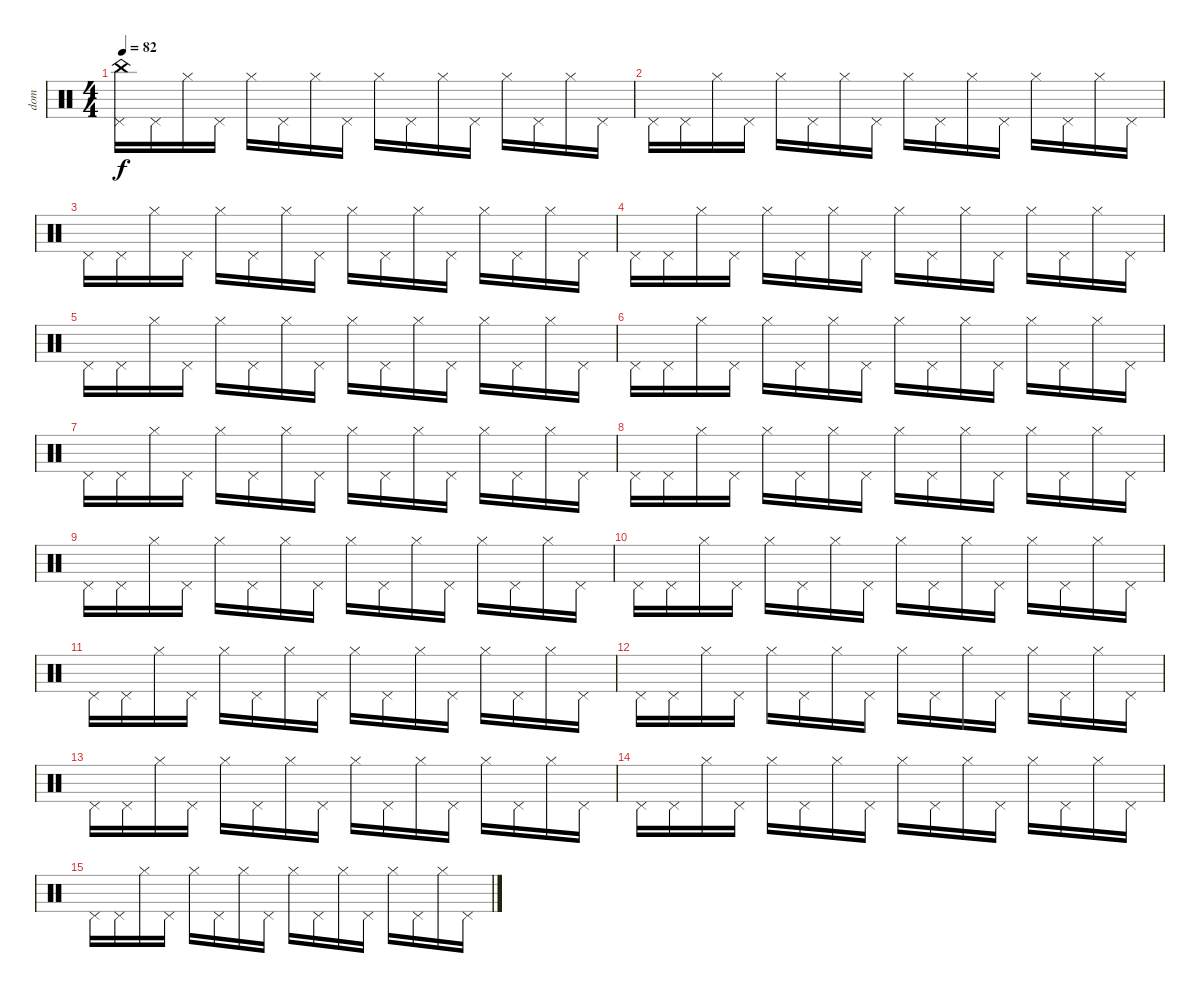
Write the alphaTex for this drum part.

\track ("dom" "dom") {instrument percussion}
\staff {score}
\articulation defaults
\ts (4 4)
\tempo 82
\clef neutral
\ks c
("China (hit)" "Pedal Hi-Hat (hit)").16{dy f} "Pedal Hi-Hat (hit)".16 "Hi-Hat (closed)".16 "Pedal Hi-Hat (hit)".16 "Hi-Hat (closed)".16 "Pedal Hi-Hat (hit)".16 "Hi-Hat (closed)".16 "Pedal Hi-Hat (hit)".16 "Hi-Hat (closed)".16 "Pedal Hi-Hat (hit)".16 "Hi-Hat (closed)".16 "Pedal Hi-Hat (hit)".16 "Hi-Hat (closed)".16 "Pedal Hi-Hat (hit)".16 "Hi-Hat (closed)".16 "Pedal Hi-Hat (hit)".16 |
"Pedal Hi-Hat (hit)".16 "Pedal Hi-Hat (hit)".16 "Hi-Hat (closed)".16 "Pedal Hi-Hat (hit)".16 "Hi-Hat (closed)".16 "Pedal Hi-Hat (hit)".16 "Hi-Hat (closed)".16 "Pedal Hi-Hat (hit)".16 "Hi-Hat (closed)".16 "Pedal Hi-Hat (hit)".16 "Hi-Hat (closed)".16 "Pedal Hi-Hat (hit)".16 "Hi-Hat (closed)".16 "Pedal Hi-Hat (hit)".16 "Hi-Hat (closed)".16 "Pedal Hi-Hat (hit)".16 |
"Pedal Hi-Hat (hit)".16 "Pedal Hi-Hat (hit)".16 "Hi-Hat (closed)".16 "Pedal Hi-Hat (hit)".16 "Hi-Hat (closed)".16 "Pedal Hi-Hat (hit)".16 "Hi-Hat (closed)".16 "Pedal Hi-Hat (hit)".16 "Hi-Hat (closed)".16 "Pedal Hi-Hat (hit)".16 "Hi-Hat (closed)".16 "Pedal Hi-Hat (hit)".16 "Hi-Hat (closed)".16 "Pedal Hi-Hat (hit)".16 "Hi-Hat (closed)".16 "Pedal Hi-Hat (hit)".16 |
"Pedal Hi-Hat (hit)".16 "Pedal Hi-Hat (hit)".16 "Hi-Hat (closed)".16 "Pedal Hi-Hat (hit)".16 "Hi-Hat (closed)".16 "Pedal Hi-Hat (hit)".16 "Hi-Hat (closed)".16 "Pedal Hi-Hat (hit)".16 "Hi-Hat (closed)".16 "Pedal Hi-Hat (hit)".16 "Hi-Hat (closed)".16 "Pedal Hi-Hat (hit)".16 "Hi-Hat (closed)".16 "Pedal Hi-Hat (hit)".16 "Hi-Hat (closed)".16 "Pedal Hi-Hat (hit)".16 |
"Pedal Hi-Hat (hit)".16 "Pedal Hi-Hat (hit)".16 "Hi-Hat (closed)".16 "Pedal Hi-Hat (hit)".16 "Hi-Hat (closed)".16 "Pedal Hi-Hat (hit)".16 "Hi-Hat (closed)".16 "Pedal Hi-Hat (hit)".16 "Hi-Hat (closed)".16 "Pedal Hi-Hat (hit)".16 "Hi-Hat (closed)".16 "Pedal Hi-Hat (hit)".16 "Hi-Hat (closed)".16 "Pedal Hi-Hat (hit)".16 "Hi-Hat (closed)".16 "Pedal Hi-Hat (hit)".16 |
"Pedal Hi-Hat (hit)".16 "Pedal Hi-Hat (hit)".16 "Hi-Hat (closed)".16 "Pedal Hi-Hat (hit)".16 "Hi-Hat (closed)".16 "Pedal Hi-Hat (hit)".16 "Hi-Hat (closed)".16 "Pedal Hi-Hat (hit)".16 "Hi-Hat (closed)".16 "Pedal Hi-Hat (hit)".16 "Hi-Hat (closed)".16 "Pedal Hi-Hat (hit)".16 "Hi-Hat (closed)".16 "Pedal Hi-Hat (hit)".16 "Hi-Hat (closed)".16 "Pedal Hi-Hat (hit)".16 |
"Pedal Hi-Hat (hit)".16 "Pedal Hi-Hat (hit)".16 "Hi-Hat (closed)".16 "Pedal Hi-Hat (hit)".16 "Hi-Hat (closed)".16 "Pedal Hi-Hat (hit)".16 "Hi-Hat (closed)".16 "Pedal Hi-Hat (hit)".16 "Hi-Hat (closed)".16 "Pedal Hi-Hat (hit)".16 "Hi-Hat (closed)".16 "Pedal Hi-Hat (hit)".16 "Hi-Hat (closed)".16 "Pedal Hi-Hat (hit)".16 "Hi-Hat (closed)".16 "Pedal Hi-Hat (hit)".16 |
"Pedal Hi-Hat (hit)".16 "Pedal Hi-Hat (hit)".16 "Hi-Hat (closed)".16 "Pedal Hi-Hat (hit)".16 "Hi-Hat (closed)".16 "Pedal Hi-Hat (hit)".16 "Hi-Hat (closed)".16 "Pedal Hi-Hat (hit)".16 "Hi-Hat (closed)".16 "Pedal Hi-Hat (hit)".16 "Hi-Hat (closed)".16 "Pedal Hi-Hat (hit)".16 "Hi-Hat (closed)".16 "Pedal Hi-Hat (hit)".16 "Hi-Hat (closed)".16 "Pedal Hi-Hat (hit)".16 |
"Pedal Hi-Hat (hit)".16 "Pedal Hi-Hat (hit)".16 "Hi-Hat (closed)".16 "Pedal Hi-Hat (hit)".16 "Hi-Hat (closed)".16 "Pedal Hi-Hat (hit)".16 "Hi-Hat (closed)".16 "Pedal Hi-Hat (hit)".16 "Hi-Hat (closed)".16 "Pedal Hi-Hat (hit)".16 "Hi-Hat (closed)".16 "Pedal Hi-Hat (hit)".16 "Hi-Hat (closed)".16 "Pedal Hi-Hat (hit)".16 "Hi-Hat (closed)".16 "Pedal Hi-Hat (hit)".16 |
"Pedal Hi-Hat (hit)".16 "Pedal Hi-Hat (hit)".16 "Hi-Hat (closed)".16 "Pedal Hi-Hat (hit)".16 "Hi-Hat (closed)".16 "Pedal Hi-Hat (hit)".16 "Hi-Hat (closed)".16 "Pedal Hi-Hat (hit)".16 "Hi-Hat (closed)".16 "Pedal Hi-Hat (hit)".16 "Hi-Hat (closed)".16 "Pedal Hi-Hat (hit)".16 "Hi-Hat (closed)".16 "Pedal Hi-Hat (hit)".16 "Hi-Hat (closed)".16 "Pedal Hi-Hat (hit)".16 |
"Pedal Hi-Hat (hit)".16 "Pedal Hi-Hat (hit)".16 "Hi-Hat (closed)".16 "Pedal Hi-Hat (hit)".16 "Hi-Hat (closed)".16 "Pedal Hi-Hat (hit)".16 "Hi-Hat (closed)".16 "Pedal Hi-Hat (hit)".16 "Hi-Hat (closed)".16 "Pedal Hi-Hat (hit)".16 "Hi-Hat (closed)".16 "Pedal Hi-Hat (hit)".16 "Hi-Hat (closed)".16 "Pedal Hi-Hat (hit)".16 "Hi-Hat (closed)".16 "Pedal Hi-Hat (hit)".16 |
"Pedal Hi-Hat (hit)".16 "Pedal Hi-Hat (hit)".16 "Hi-Hat (closed)".16 "Pedal Hi-Hat (hit)".16 "Hi-Hat (closed)".16 "Pedal Hi-Hat (hit)".16 "Hi-Hat (closed)".16 "Pedal Hi-Hat (hit)".16 "Hi-Hat (closed)".16 "Pedal Hi-Hat (hit)".16 "Hi-Hat (closed)".16 "Pedal Hi-Hat (hit)".16 "Hi-Hat (closed)".16 "Pedal Hi-Hat (hit)".16 "Hi-Hat (closed)".16 "Pedal Hi-Hat (hit)".16 |
"Pedal Hi-Hat (hit)".16 "Pedal Hi-Hat (hit)".16 "Hi-Hat (closed)".16 "Pedal Hi-Hat (hit)".16 "Hi-Hat (closed)".16 "Pedal Hi-Hat (hit)".16 "Hi-Hat (closed)".16 "Pedal Hi-Hat (hit)".16 "Hi-Hat (closed)".16 "Pedal Hi-Hat (hit)".16 "Hi-Hat (closed)".16 "Pedal Hi-Hat (hit)".16 "Hi-Hat (closed)".16 "Pedal Hi-Hat (hit)".16 "Hi-Hat (closed)".16 "Pedal Hi-Hat (hit)".16 |
"Pedal Hi-Hat (hit)".16 "Pedal Hi-Hat (hit)".16 "Hi-Hat (closed)".16 "Pedal Hi-Hat (hit)".16 "Hi-Hat (closed)".16 "Pedal Hi-Hat (hit)".16 "Hi-Hat (closed)".16 "Pedal Hi-Hat (hit)".16 "Hi-Hat (closed)".16 "Pedal Hi-Hat (hit)".16 "Hi-Hat (closed)".16 "Pedal Hi-Hat (hit)".16 "Hi-Hat (closed)".16 "Pedal Hi-Hat (hit)".16 "Hi-Hat (closed)".16 "Pedal Hi-Hat (hit)".16 |
"Pedal Hi-Hat (hit)".16 "Pedal Hi-Hat (hit)".16 "Hi-Hat (closed)".16 "Pedal Hi-Hat (hit)".16 "Hi-Hat (closed)".16 "Pedal Hi-Hat (hit)".16 "Hi-Hat (closed)".16 "Pedal Hi-Hat (hit)".16 "Hi-Hat (closed)".16 "Pedal Hi-Hat (hit)".16 "Hi-Hat (closed)".16 "Pedal Hi-Hat (hit)".16 "Hi-Hat (closed)".16 "Pedal Hi-Hat (hit)".16 "Hi-Hat (closed)".16 "Pedal Hi-Hat (hit)".16
